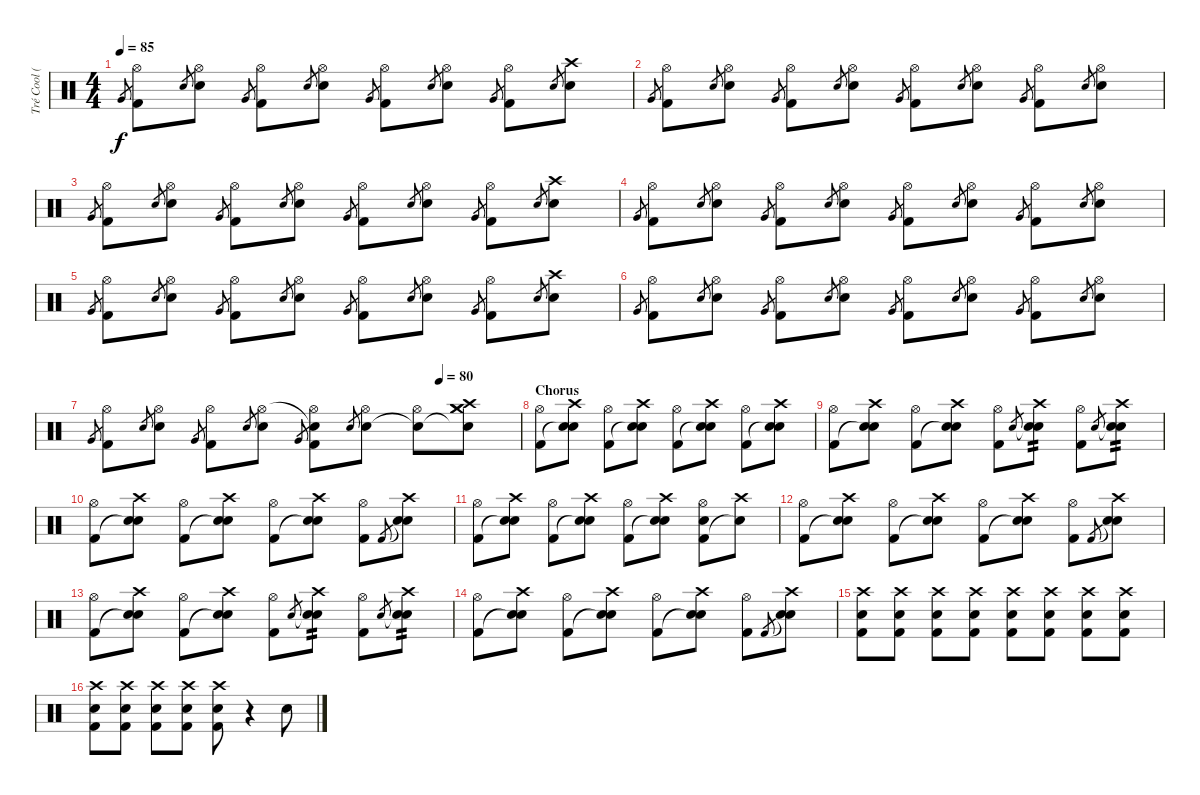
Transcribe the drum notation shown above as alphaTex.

\track ("Tré Cool (Drums)" "Tré Cool (") {instrument percussion}
\staff {score}
\articulation defaults
\ts (4 4)
\tempo 85
\clef neutral
\ks c "Very Low Tom (hit)".8{gr dy f}
("Kick (hit) 2" "Hi-Hat (open)").8 "Electric Snare (hit)".8{gr} ("Electric Snare (hit)"{tr (40 16)} "Hi-Hat (open)").8 "Very Low Tom (hit)".8{gr} ("Kick (hit) 2" "Hi-Hat (open)").8 "Electric Snare (hit)".8{gr} ("Electric Snare (hit)"{tr (40 16)} "Hi-Hat (open)").8 "Very Low Tom (hit)".8{gr} ("Kick (hit) 2" "Hi-Hat (open)").8 "Electric Snare (hit)".8{gr} ("Electric Snare (hit)"{tr (40 16)} "Hi-Hat (open)").8 "Very Low Tom (hit)".8{gr} ("Kick (hit) 2" "Hi-Hat (open)").8 "Electric Snare (hit)".8{gr} ("Electric Snare (hit)"{tr (40 16)} "Crash high (hit)").8 |
"Very Low Tom (hit)".8{gr} ("Kick (hit) 2" "Hi-Hat (open)").8 "Electric Snare (hit)".8{gr} ("Electric Snare (hit)"{tr (40 16)} "Hi-Hat (open)").8 "Very Low Tom (hit)".8{gr} ("Kick (hit) 2" "Hi-Hat (open)").8 "Electric Snare (hit)".8{gr} ("Electric Snare (hit)"{tr (40 16)} "Hi-Hat (open)").8 "Very Low Tom (hit)".8{gr} ("Kick (hit) 2" "Hi-Hat (open)").8 "Electric Snare (hit)".8{gr} ("Electric Snare (hit)"{tr (40 16)} "Hi-Hat (open)").8 "Very Low Tom (hit)".8{gr} ("Kick (hit) 2" "Hi-Hat (open)").8 "Electric Snare (hit)".8{gr} ("Electric Snare (hit)"{tr (40 16)} "Hi-Hat (open)").8 |
"Very Low Tom (hit)".8{gr} ("Kick (hit) 2" "Hi-Hat (open)").8 "Electric Snare (hit)".8{gr} ("Electric Snare (hit)"{tr (40 16)} "Hi-Hat (open)").8 "Very Low Tom (hit)".8{gr} ("Kick (hit) 2" "Hi-Hat (open)").8 "Electric Snare (hit)".8{gr} ("Electric Snare (hit)"{tr (40 16)} "Hi-Hat (open)").8 "Very Low Tom (hit)".8{gr} ("Kick (hit) 2" "Hi-Hat (open)").8 "Electric Snare (hit)".8{gr} ("Electric Snare (hit)"{tr (40 16)} "Hi-Hat (open)").8 "Very Low Tom (hit)".8{gr} ("Kick (hit) 2" "Hi-Hat (open)").8 "Electric Snare (hit)".8{gr} ("Electric Snare (hit)"{tr (40 16)} "Crash high (hit)").8 |
"Very Low Tom (hit)".8{gr} ("Kick (hit) 2" "Hi-Hat (open)").8 "Electric Snare (hit)".8{gr} ("Electric Snare (hit)"{tr (40 16)} "Hi-Hat (open)").8 "Very Low Tom (hit)".8{gr} ("Kick (hit) 2" "Hi-Hat (open)").8 "Electric Snare (hit)".8{gr} ("Electric Snare (hit)"{tr (40 16)} "Hi-Hat (open)").8 "Very Low Tom (hit)".8{gr} ("Kick (hit) 2" "Hi-Hat (open)").8 "Electric Snare (hit)".8{gr} ("Electric Snare (hit)"{tr (40 16)} "Hi-Hat (open)").8 "Very Low Tom (hit)".8{gr} ("Kick (hit) 2" "Hi-Hat (open)").8 "Electric Snare (hit)".8{gr} ("Electric Snare (hit)"{tr (40 16)} "Hi-Hat (open)").8 |
"Very Low Tom (hit)".8{gr} ("Kick (hit) 2" "Hi-Hat (open)").8 "Electric Snare (hit)".8{gr} ("Electric Snare (hit)"{tr (40 16)} "Hi-Hat (open)").8 "Very Low Tom (hit)".8{gr} ("Kick (hit) 2" "Hi-Hat (open)").8 "Electric Snare (hit)".8{gr} ("Electric Snare (hit)"{tr (40 16)} "Hi-Hat (open)").8 "Very Low Tom (hit)".8{gr} ("Kick (hit) 2" "Hi-Hat (open)").8 "Electric Snare (hit)".8{gr} ("Electric Snare (hit)"{tr (40 16)} "Hi-Hat (open)").8 "Very Low Tom (hit)".8{gr} ("Kick (hit) 2" "Hi-Hat (open)").8 "Electric Snare (hit)".8{gr} ("Electric Snare (hit)"{tr (40 16)} "Crash high (hit)").8 |
"Very Low Tom (hit)".8{gr} ("Kick (hit) 2" "Hi-Hat (open)").8 "Electric Snare (hit)".8{gr} ("Electric Snare (hit)"{tr (40 16)} "Hi-Hat (open)").8 "Very Low Tom (hit)".8{gr} ("Kick (hit) 2" "Hi-Hat (open)").8 "Electric Snare (hit)".8{gr} ("Electric Snare (hit)"{tr (40 16)} "Hi-Hat (open)").8 "Very Low Tom (hit)".8{gr} ("Kick (hit) 2" "Hi-Hat (open)").8 "Electric Snare (hit)".8{gr} ("Electric Snare (hit)"{tr (40 16)} "Hi-Hat (open)").8 "Very Low Tom (hit)".8{gr} ("Kick (hit) 2" "Hi-Hat (open)").8 "Electric Snare (hit)".8{gr} ("Electric Snare (hit)"{tr (40 16)} "Hi-Hat (open)").8 |
\tempo (80 0.8125)
"Very Low Tom (hit)".8{gr} ("Kick (hit) 2" "Hi-Hat (open)").8 "Electric Snare (hit)".8{gr} ("Electric Snare (hit)"{tr (40 16)} "Hi-Hat (open)").8 "Very Low Tom (hit)".8{gr} ("Kick (hit) 2" "Hi-Hat (open)").8 "Electric Snare (hit)".8{gr} ("Electric Snare (hit)"{tr (40 16)} "Hi-Hat (open)").8 "Very Low Tom (hit)".8{gr} ("Kick (hit) 2" "Snare (hit)"{t} "Hi-Hat (open)").8 "Electric Snare (hit)".8{gr} ("Electric Snare (hit)"{tr (38 64)} "Hi-Hat (open)").8 ("Snare (hit)"{t} "Hi-Hat (open)").8 ("Electric Snare (hit)"{t} "Crash medium (hit)" "Crash medium (hit)" "Crash high (hit)").8 |
\section ("" "Chorus")
("Kick (hit) 2" "Hi-Hat (open)").8 ("Snare (hit)"{t} "Electric Snare (hit)" "Crash high (hit)").8 ("Kick (hit) 2" "Hi-Hat (open)").8 ("Snare (hit)"{t} "Electric Snare (hit)" "Crash high (hit)").8 ("Kick (hit) 2" "Hi-Hat (open)").8 ("Snare (hit)"{t} "Electric Snare (hit)" "Crash high (hit)").8 ("Kick (hit) 2" "Hi-Hat (open)").8 ("Snare (hit)"{t} "Electric Snare (hit)" "Crash high (hit)").8 |
("Kick (hit) 2" "Hi-Hat (open)").8 ("Snare (hit)"{t} "Electric Snare (hit)" "Crash high (hit)").8 ("Kick (hit) 2" "Hi-Hat (open)").8 ("Snare (hit)"{t} "Electric Snare (hit)" "Crash high (hit)").8 ("Kick (hit) 2"{tr (36 16)} "Hi-Hat (open)").8 "Electric Snare (hit)".8{gr} ("Snare (hit)"{t} "Electric Snare (hit)" "Crash high (hit)").8{tp 2} ("Kick (hit) 2"{tr (36 16)} "Hi-Hat (open)").8 "Electric Snare (hit)".8{gr} ("Snare (hit)"{t} "Electric Snare (hit)" "Crash high (hit)").8{tp 2} |
("Kick (hit) 2" "Hi-Hat (open)").8 ("Snare (hit)"{t} "Electric Snare (hit)" "Crash high (hit)").8 ("Kick (hit) 2" "Hi-Hat (open)").8 ("Snare (hit)"{t} "Electric Snare (hit)" "Crash high (hit)").8 ("Kick (hit) 2" "Hi-Hat (open)").8 ("Snare (hit)"{t} "Electric Snare (hit)" "Crash high (hit)").8 ("Kick (hit) 2" "Hi-Hat (open)").8 "Kick (hit) 2".8{gr} ("Snare (hit)"{t} "Electric Snare (hit)" "Crash high (hit)").8 |
("Kick (hit) 2" "Hi-Hat (open)").8 ("Snare (hit)"{t} "Electric Snare (hit)" "Crash high (hit)").8 ("Kick (hit) 2" "Hi-Hat (open)").8 ("Snare (hit)"{t} "Electric Snare (hit)" "Crash high (hit)").8 ("Kick (hit) 2" "Hi-Hat (open)").8 ("Snare (hit)"{t} "Electric Snare (hit)" "Crash high (hit)").8 ("Kick (hit) 2" "Electric Snare (hit)"{tr (38 64)} "Hi-Hat (open)").8 ("Electric Snare (hit)"{t} "Crash high (hit)").8 |
("Kick (hit) 2" "Hi-Hat (open)").8 ("Snare (hit)"{t} "Electric Snare (hit)" "Crash high (hit)").8 ("Kick (hit) 2" "Hi-Hat (open)").8 ("Snare (hit)"{t} "Electric Snare (hit)" "Crash high (hit)").8 ("Kick (hit) 2" "Hi-Hat (open)").8 ("Snare (hit)"{t} "Electric Snare (hit)" "Crash high (hit)").8 ("Kick (hit) 2" "Hi-Hat (open)").8 "Kick (hit) 2".8{gr} ("Snare (hit)"{t} "Electric Snare (hit)" "Crash high (hit)").8 |
("Kick (hit) 2" "Hi-Hat (open)").8 ("Snare (hit)"{t} "Electric Snare (hit)" "Crash high (hit)").8 ("Kick (hit) 2" "Hi-Hat (open)").8 ("Snare (hit)"{t} "Electric Snare (hit)" "Crash high (hit)").8 ("Kick (hit) 2"{tr (36 16)} "Hi-Hat (open)").8 "Electric Snare (hit)".8{gr} ("Snare (hit)"{t} "Electric Snare (hit)" "Crash high (hit)").8{tp 2} ("Kick (hit) 2"{tr (36 16)} "Hi-Hat (open)").8 "Electric Snare (hit)".8{gr} ("Snare (hit)"{t} "Electric Snare (hit)" "Crash high (hit)").8{tp 2} |
("Kick (hit) 2" "Hi-Hat (open)").8 ("Snare (hit)"{t} "Electric Snare (hit)" "Crash high (hit)").8 ("Kick (hit) 2" "Hi-Hat (open)").8 ("Snare (hit)"{t} "Electric Snare (hit)" "Crash high (hit)").8 ("Kick (hit) 2" "Hi-Hat (open)").8 ("Snare (hit)"{t} "Electric Snare (hit)" "Crash high (hit)").8 ("Kick (hit) 2" "Hi-Hat (open)").8 "Kick (hit) 2".8{gr} ("Snare (hit)"{t} "Electric Snare (hit)" "Crash high (hit)").8 |
("Electric Snare (hit)" "Kick (hit) 2" "Crash high (hit)").8 ("Electric Snare (hit)" "Kick (hit) 2" "Crash high (hit)").8 ("Electric Snare (hit)" "Kick (hit) 2" "Crash high (hit)").8 ("Electric Snare (hit)" "Kick (hit) 2" "Crash high (hit)").8 ("Electric Snare (hit)" "Kick (hit) 2" "Crash high (hit)").8 ("Electric Snare (hit)" "Kick (hit) 2" "Crash high (hit)").8 ("Electric Snare (hit)" "Kick (hit) 2" "Crash high (hit)").8 ("Electric Snare (hit)" "Kick (hit) 2" "Crash high (hit)").8 |
("Electric Snare (hit)" "Kick (hit) 2" "Crash high (hit)").8 ("Electric Snare (hit)" "Kick (hit) 2" "Crash high (hit)").8 ("Electric Snare (hit)" "Kick (hit) 2" "Crash high (hit)").8 ("Electric Snare (hit)" "Kick (hit) 2" "Crash high (hit)").8 ("Electric Snare (hit)" "Kick (hit) 2" "Crash high (hit)").8 r.4 "Electric Snare (hit)"{tr (38 64)}.8
